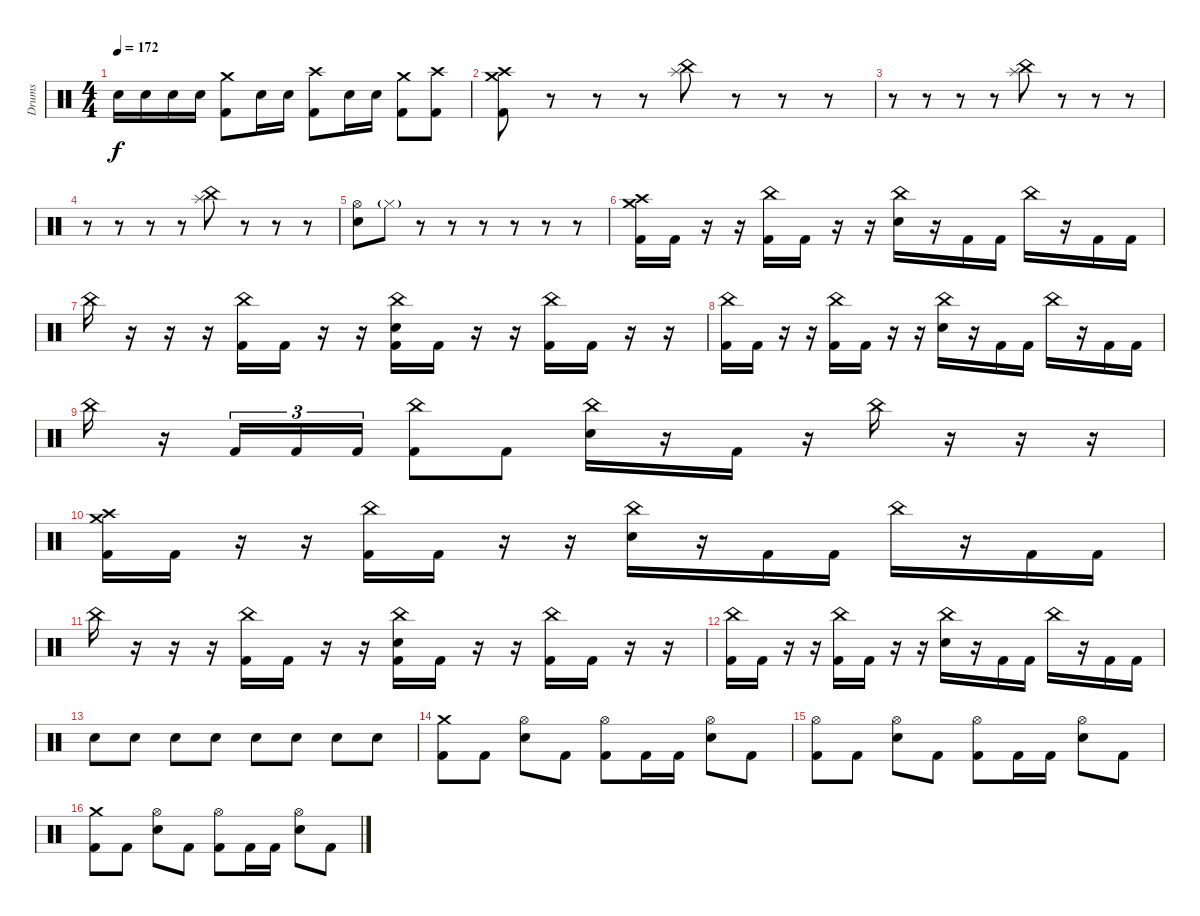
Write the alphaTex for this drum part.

\track ("Drums" "Drums") {instrument percussion}
\staff {score}
\articulation defaults
\ts (4 4)
\tempo 172
\clef neutral
\ks c "Electric Snare (hit)".16{dy f} "Electric Snare (hit)".16 "Electric Snare (hit)".16 "Electric Snare (hit)".16
("Crash medium (hit)" "Kick (hit) 2").8 "Electric Snare (hit)".16 "Electric Snare (hit)".16 ("Crash high (hit)" "Kick (hit) 2").8 "Electric Snare (hit)".16 "Electric Snare (hit)".16 ("Crash medium (hit)" "Kick (hit) 2").8 ("Crash high (hit)" "Kick (hit) 2").8 |
("Crash medium (hit)" "Crash high (hit)" "Kick (hit) 2").8 r.8 r.8 r.8 ("China (hit)" "Splash (hit)").8 r.8 r.8 r.8 |
r.8 r.8 r.8 r.8 ("China (hit)" "Splash (hit)").8 r.8 r.8 r.8 |
r.8 r.8 r.8 r.8 ("China (hit)" "Splash (hit)").8 r.8 r.8 r.8 |
("Hi-Hat (open)" "Electric Snare (hit)").8 "Hi-Hat (closed)"{g}.8 r.8 r.8 r.8 r.8 r.8 r.8 |
("Crash medium (hit)" "Crash high (hit)" "Kick (hit) 2").16 "Kick (hit) 2".16 r.16 r.16 ("China (hit)" "Kick (hit) 2").16 "Kick (hit) 2".16 r.16 r.16 ("China (hit)" "Electric Snare (hit)").16 r.16 "Kick (hit) 2".16 "Kick (hit) 2".16 "China (hit)".16 r.16 "Kick (hit) 2".16 "Kick (hit) 2".16 |
"China (hit)".16 r.16 r.16 r.16 ("China (hit)" "Kick (hit) 2").16 "Kick (hit) 2".16 r.16 r.16 ("China (hit)" "Electric Snare (hit)" "Kick (hit) 2").16 "Kick (hit) 2".16 r.16 r.16 ("China (hit)" "Kick (hit) 2").16 "Kick (hit) 2".16 r.16 r.16 |
("China (hit)" "Kick (hit) 2").16 "Kick (hit) 2".16 r.16 r.16 ("China (hit)" "Kick (hit) 2").16 "Kick (hit) 2".16 r.16 r.16 ("China (hit)" "Electric Snare (hit)").16 r.16 "Kick (hit) 2".16 "Kick (hit) 2".16 "China (hit)".16 r.16 "Kick (hit) 2".16 "Kick (hit) 2".16 |
"China (hit)".16 r.16 "Kick (hit) 2".16{tu (3 2)} "Kick (hit) 2".16{tu (3 2)} "Kick (hit) 2".16{tu (3 2)} ("China (hit)" "Kick (hit) 2").8 "Kick (hit) 2".8 ("China (hit)" "Electric Snare (hit)").16 r.16 "Kick (hit) 2".16 r.16 "China (hit)".16 r.16 r.16 r.16 |
("Crash medium (hit)" "Crash high (hit)" "Kick (hit) 2").16 "Kick (hit) 2".16 r.16 r.16 ("China (hit)" "Kick (hit) 2").16 "Kick (hit) 2".16 r.16 r.16 ("China (hit)" "Electric Snare (hit)").16 r.16 "Kick (hit) 2".16 "Kick (hit) 2".16 "China (hit)".16 r.16 "Kick (hit) 2".16 "Kick (hit) 2".16 |
"China (hit)".16 r.16 r.16 r.16 ("China (hit)" "Kick (hit) 2").16 "Kick (hit) 2".16 r.16 r.16 ("China (hit)" "Electric Snare (hit)" "Kick (hit) 2").16 "Kick (hit) 2".16 r.16 r.16 ("China (hit)" "Kick (hit) 2").16 "Kick (hit) 2".16 r.16 r.16 |
("China (hit)" "Kick (hit) 2").16 "Kick (hit) 2".16 r.16 r.16 ("China (hit)" "Kick (hit) 2").16 "Kick (hit) 2".16 r.16 r.16 ("China (hit)" "Electric Snare (hit)").16 r.16 "Kick (hit) 2".16 "Kick (hit) 2".16 "China (hit)".16 r.16 "Kick (hit) 2".16 "Kick (hit) 2".16 |
"Electric Snare (hit)".8 "Electric Snare (hit)".8 "Electric Snare (hit)".8 "Electric Snare (hit)".8 "Electric Snare (hit)".8 "Electric Snare (hit)".8 "Electric Snare (hit)".8 "Electric Snare (hit)".8 |
("Crash medium (hit)" "Kick (hit) 2").8 "Kick (hit) 2".8 ("Hi-Hat (open)" "Electric Snare (hit)").8 "Kick (hit) 2".8 ("Hi-Hat (open)" "Kick (hit) 2").8 "Kick (hit) 2".16 "Kick (hit) 2".16 ("Hi-Hat (open)" "Electric Snare (hit)").8 "Kick (hit) 2".8 |
("Hi-Hat (open)" "Kick (hit) 2").8 "Kick (hit) 2".8 ("Hi-Hat (open)" "Electric Snare (hit)").8 "Kick (hit) 2".8 ("Hi-Hat (open)" "Kick (hit) 2").8 "Kick (hit) 2".16 "Kick (hit) 2".16 ("Hi-Hat (open)" "Electric Snare (hit)").8 "Kick (hit) 2".8 |
("Crash medium (hit)" "Kick (hit) 2").8 "Kick (hit) 2".8 ("Hi-Hat (open)" "Electric Snare (hit)").8 "Kick (hit) 2".8 ("Hi-Hat (open)" "Kick (hit) 2").8 "Kick (hit) 2".16 "Kick (hit) 2".16 ("Hi-Hat (open)" "Electric Snare (hit)").8 "Kick (hit) 2".8
